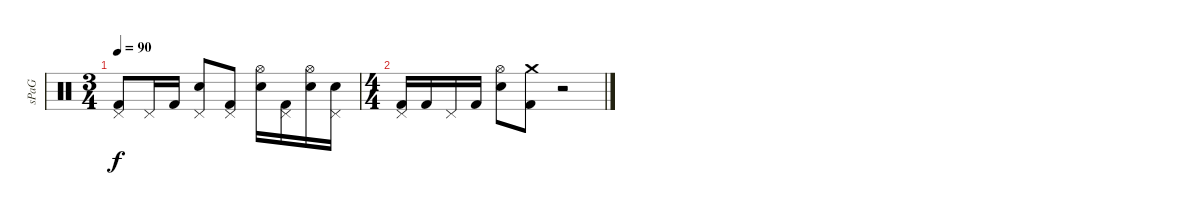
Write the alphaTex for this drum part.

\track ("sPaG" "sPaG") {instrument percussion}
\staff {score}
\articulation defaults
\ts (3 4)
\tempo 90
\clef neutral
\ks c
("Pedal Hi-Hat (hit)" "Kick (hit) 2").8{dy f} "Pedal Hi-Hat (hit)".16 "Kick (hit) 2".16 ("Pedal Hi-Hat (hit)" "Snare (hit) 2").8 ("Pedal Hi-Hat (hit)" "Kick (hit) 2").8 ("Hi-Hat (open)" "Snare (hit) 2").16 ("Pedal Hi-Hat (hit)" "Kick (hit) 2").16 ("Hi-Hat (open)" "Snare (hit) 2").16 ("Pedal Hi-Hat (hit)" "Snare (hit) 2").16 |
\ts (4 4)
("Pedal Hi-Hat (hit)" "Kick (hit) 2").16 "Kick (hit) 2".16 "Pedal Hi-Hat (hit)".16 "Kick (hit) 2".16 ("Hi-Hat (open)" "Snare (hit) 2").8 ("Crash medium (hit)" "Kick (hit) 2").8 r.2
